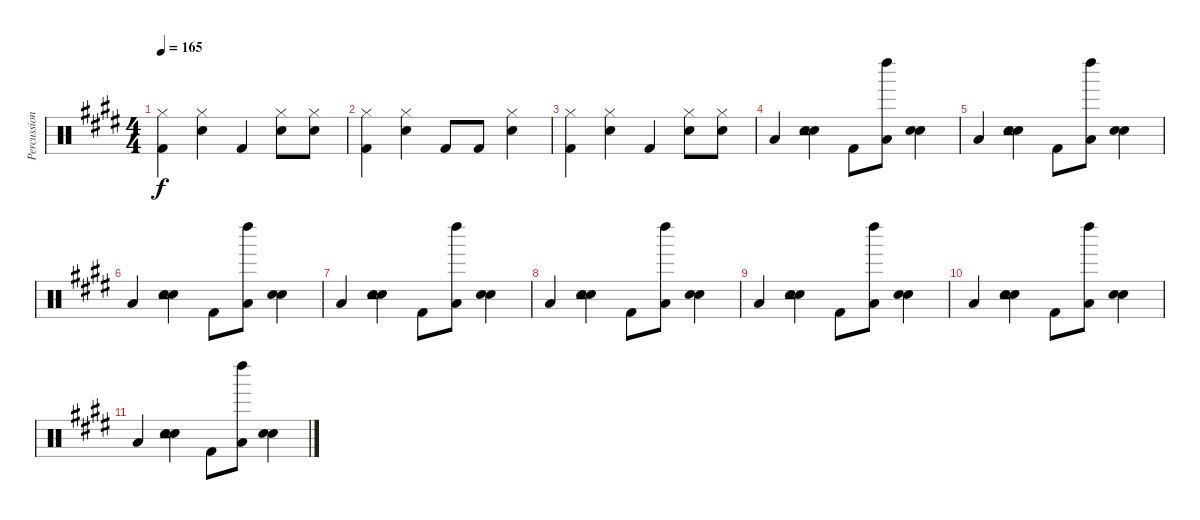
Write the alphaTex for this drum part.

\track ("Percussioni" "Percussion") {instrument percussion}
\staff {score}
\articulation defaults
\ts (4 4)
\tempo 165
\clef neutral
\ks e
("Kick (hit) 2" "Hi-Hat (closed)").4{dy f} ("Snare (hit) 2" "Hi-Hat (closed)").4 "Kick (hit) 2".4 ("Snare (hit) 2" "Hi-Hat (closed)").8 ("Snare (hit) 2" "Hi-Hat (closed)").8 |
("Kick (hit) 2" "Hi-Hat (closed)").4 ("Snare (hit) 2" "Hi-Hat (closed)").4 "Kick (hit) 2".8 "Kick (hit) 2".8 ("Snare (hit) 2" "Hi-Hat (closed)").4 |
("Kick (hit) 2" "Hi-Hat (closed)").4 ("Snare (hit) 2" "Hi-Hat (closed)").4 "Kick (hit) 2".4 ("Snare (hit) 2" "Hi-Hat (closed)").8 ("Snare (hit) 2" "Hi-Hat (closed)").8 |
"Low Floor Tom (hit)".4 ("Electric Snare (hit)" "Snare (hit) 2" "Tambourine (hit)").4 "Kick (hit) 2".8 ("Low Floor Tom (hit)" "Left Maraca (hit)").8 ("Electric Snare (hit)" "Snare (hit) 2").4 |
"Low Floor Tom (hit)".4 ("Electric Snare (hit)" "Snare (hit) 2" "Tambourine (hit)").4 "Kick (hit) 2".8 ("Low Floor Tom (hit)" "Left Maraca (hit)").8 ("Electric Snare (hit)" "Snare (hit) 2").4 |
"Low Floor Tom (hit)".4 ("Electric Snare (hit)" "Snare (hit) 2" "Tambourine (hit)").4 "Kick (hit) 2".8 ("Low Floor Tom (hit)" "Left Maraca (hit)").8 ("Electric Snare (hit)" "Snare (hit) 2").4 |
"Low Floor Tom (hit)".4 ("Electric Snare (hit)" "Snare (hit) 2" "Tambourine (hit)").4 "Kick (hit) 2".8 ("Low Floor Tom (hit)" "Left Maraca (hit)").8 ("Electric Snare (hit)" "Snare (hit) 2").4 |
"Low Floor Tom (hit)".4 ("Electric Snare (hit)" "Snare (hit) 2" "Tambourine (hit)").4 "Kick (hit) 2".8 ("Low Floor Tom (hit)" "Left Maraca (hit)").8 ("Electric Snare (hit)" "Snare (hit) 2").4 |
"Low Floor Tom (hit)".4 ("Electric Snare (hit)" "Snare (hit) 2" "Tambourine (hit)").4 "Kick (hit) 2".8 ("Low Floor Tom (hit)" "Left Maraca (hit)").8 ("Electric Snare (hit)" "Snare (hit) 2").4 |
"Low Floor Tom (hit)".4 ("Electric Snare (hit)" "Snare (hit) 2" "Tambourine (hit)").4 "Kick (hit) 2".8 ("Low Floor Tom (hit)" "Left Maraca (hit)").8 ("Electric Snare (hit)" "Snare (hit) 2").4 |
"Low Floor Tom (hit)".4 ("Electric Snare (hit)" "Snare (hit) 2" "Tambourine (hit)").4 "Kick (hit) 2".8 ("Low Floor Tom (hit)" "Left Maraca (hit)").8 ("Electric Snare (hit)" "Snare (hit) 2").4
